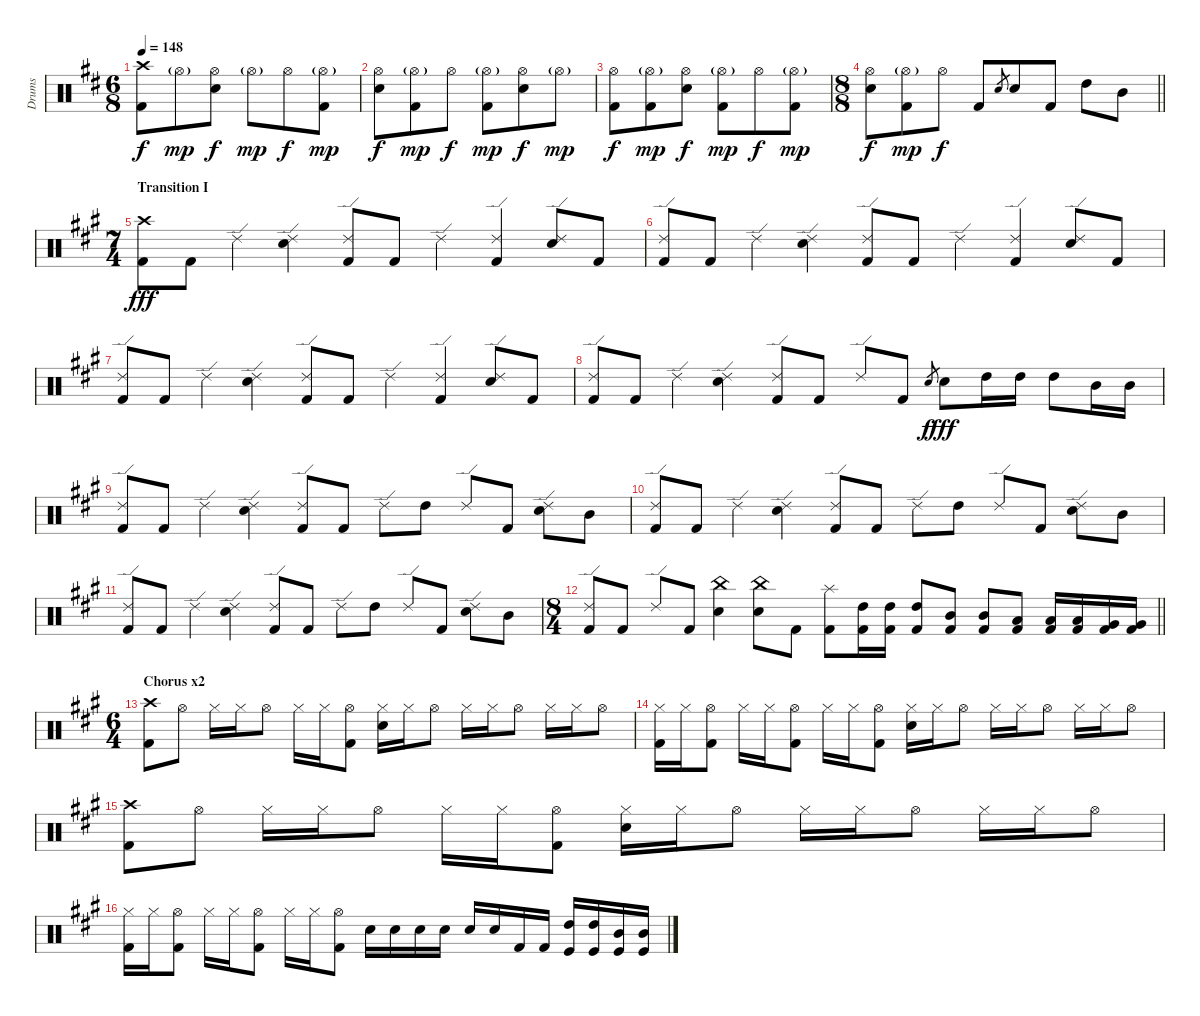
\track ("Drums" "Drums") {instrument percussion}
\staff {score}
\articulation defaults
\ts (6 8)
\tempo 148
\clef neutral
\ks d
("Crash high (hit)" "Kick (hit) 2").8{dy f} "Hi-Hat (open)"{g}.8{dy mp} ("Hi-Hat (open)" "Electric Snare (hit)").8{dy f} "Hi-Hat (open)"{g}.8{dy mp} "Hi-Hat (open)".8{dy f} ("Hi-Hat (open)"{g} "Kick (hit) 2").8{dy mp} |
("Hi-Hat (open)" "Electric Snare (hit)").8{dy f} ("Hi-Hat (open)"{g} "Kick (hit) 2").8{dy mp} "Hi-Hat (open)".8{dy f} ("Hi-Hat (open)"{g} "Kick (hit) 2").8{dy mp} ("Hi-Hat (open)" "Electric Snare (hit)").8{dy f} "Hi-Hat (open)"{g}.8{dy mp} |
("Hi-Hat (open)" "Kick (hit) 2").8{dy f} ("Hi-Hat (open)"{g} "Kick (hit) 2").8{dy mp} ("Hi-Hat (open)" "Electric Snare (hit)").8{dy f} ("Hi-Hat (open)"{g} "Kick (hit) 2").8{dy mp} "Hi-Hat (open)".8{dy f} ("Hi-Hat (open)"{g} "Kick (hit) 2").8{dy mp} |
\ts (8 8)
\barLineRight lightlight
("Hi-Hat (open)" "Electric Snare (hit)").8{dy f} ("Hi-Hat (open)"{g} "Kick (hit) 2").8{dy mp} "Hi-Hat (open)".8{dy f} "Kick (hit) 2".8 "Electric Snare (hit)".8{gr} "Electric Snare (hit)".8 "Kick (hit) 2".8 "High Tom (hit)".8 "Mid Tom (hit)".8 |
\ts (7 4)
\section ("" "Transition I")
\ks a
("Crash high (hit)" "Kick (hit) 2").8{dy fff} "Kick (hit) 2".8 "Ride (edge) 2".4 ("Ride (edge) 2" "Electric Snare (hit)").4 ("Ride (edge) 2" "Kick (hit) 2").8 "Kick (hit) 2".8 "Ride (edge) 2".4 ("Ride (edge) 2" "Kick (hit) 2").4 ("Ride (edge) 2" "Electric Snare (hit)").8 "Kick (hit) 2".8 |
("Ride (edge) 2" "Kick (hit) 2").8 "Kick (hit) 2".8 "Ride (edge) 2".4 ("Ride (edge) 2" "Electric Snare (hit)").4 ("Ride (edge) 2" "Kick (hit) 2").8 "Kick (hit) 2".8 "Ride (edge) 2".4 ("Ride (edge) 2" "Kick (hit) 2").4 ("Ride (edge) 2" "Electric Snare (hit)").8 "Kick (hit) 2".8 |
("Ride (edge) 2" "Kick (hit) 2").8 "Kick (hit) 2".8 "Ride (edge) 2".4 ("Ride (edge) 2" "Electric Snare (hit)").4 ("Ride (edge) 2" "Kick (hit) 2").8 "Kick (hit) 2".8 "Ride (edge) 2".4 ("Ride (edge) 2" "Kick (hit) 2").4 ("Ride (edge) 2" "Electric Snare (hit)").8 "Kick (hit) 2".8 |
("Ride (edge) 2" "Kick (hit) 2").8 "Kick (hit) 2".8 "Ride (edge) 2".4 ("Ride (edge) 2" "Electric Snare (hit)").4 ("Ride (edge) 2" "Kick (hit) 2").8 "Kick (hit) 2".8 "Ride (edge) 2".8 "Kick (hit) 2".8 "Electric Snare (hit)".8{gr dy f} "Electric Snare (hit)".8{dy fff} "High Tom (hit)".16 "High Tom (hit)".16 "High Tom (hit)".8 "Mid Tom (hit)".16 "Mid Tom (hit)".16 |
("Ride (edge) 2" "Kick (hit) 2").8 "Kick (hit) 2".8 "Ride (edge) 2".4 ("Ride (edge) 2" "Electric Snare (hit)").4 ("Ride (edge) 2" "Kick (hit) 2").8 "Kick (hit) 2".8 "Ride (edge) 2".8 "High Tom (hit)".8 "Ride (edge) 2".8 "Kick (hit) 2".8 ("Ride (edge) 2" "Electric Snare (hit)").8 "Mid Tom (hit)".8 |
("Ride (edge) 2" "Kick (hit) 2").8 "Kick (hit) 2".8 "Ride (edge) 2".4 ("Ride (edge) 2" "Electric Snare (hit)").4 ("Ride (edge) 2" "Kick (hit) 2").8 "Kick (hit) 2".8 "Ride (edge) 2".8 "High Tom (hit)".8 "Ride (edge) 2".8 "Kick (hit) 2".8 ("Ride (edge) 2" "Electric Snare (hit)").8 "Mid Tom (hit)".8 |
("Ride (edge) 2" "Kick (hit) 2").8 "Kick (hit) 2".8 "Ride (edge) 2".4 ("Ride (edge) 2" "Electric Snare (hit)").4 ("Ride (edge) 2" "Kick (hit) 2").8 "Kick (hit) 2".8 "Ride (edge) 2".8 "High Tom (hit)".8 "Ride (edge) 2".8 "Kick (hit) 2".8 ("Ride (edge) 2" "Electric Snare (hit)").8 "Mid Tom (hit)".8 |
\ts (8 4)
\barLineRight lightlight
("Ride (edge) 2" "Kick (hit) 2").8 "Kick (hit) 2".8 "Ride (edge) 2".8 "Kick (hit) 2".8 ("China (hit)" "Electric Snare (hit)").4 ("China (hit)" "Electric Snare (hit)").8 "Kick (hit) 2".8 ("Splash (hit)" "Kick (hit) 2").8 ("High Tom (hit)" "Kick (hit) 2").16 ("High Tom (hit)" "Kick (hit) 2").16 ("High Tom (hit)" "Kick (hit) 2").8 ("Mid Tom (hit)" "Kick (hit) 2").8 ("Mid Tom (hit)" "Kick (hit) 2").8 ("Low Tom (hit)" "Kick (hit) 2").8 ("Low Tom (hit)" "Kick (hit) 2").16 ("Low Tom (hit)" "Kick (hit) 2").16 ("Very Low Tom (hit)" "Kick (hit) 2").16 ("Very Low Tom (hit)" "Kick (hit) 2").16 |
\ts (6 4)
\section ("" "Chorus x2")
("Crash high (hit)" "Kick (hit) 2").8 "Hi-Hat (open)".8 "Hi-Hat (closed)".16 "Hi-Hat (closed)".16 "Hi-Hat (open)".8 "Hi-Hat (closed)".16 "Hi-Hat (closed)".16 ("Hi-Hat (open)" "Kick (hit) 2").8 ("Hi-Hat (closed)" "Electric Snare (hit)").16 "Hi-Hat (closed)".16 "Hi-Hat (open)".8 "Hi-Hat (closed)".16 "Hi-Hat (closed)".16 "Hi-Hat (open)".8 "Hi-Hat (closed)".16 "Hi-Hat (closed)".16 "Hi-Hat (open)".8 |
("Hi-Hat (closed)" "Kick (hit) 2").16 "Hi-Hat (closed)".16 ("Hi-Hat (open)" "Kick (hit) 2").8 "Hi-Hat (closed)".16 "Hi-Hat (closed)".16 ("Hi-Hat (open)" "Kick (hit) 2").8 "Hi-Hat (closed)".16 "Hi-Hat (closed)".16 ("Hi-Hat (open)" "Kick (hit) 2").8 ("Hi-Hat (closed)" "Electric Snare (hit)").16 "Hi-Hat (closed)".16 "Hi-Hat (open)".8 "Hi-Hat (closed)".16 "Hi-Hat (closed)".16 "Hi-Hat (open)".8 "Hi-Hat (closed)".16 "Hi-Hat (closed)".16 "Hi-Hat (open)".8 |
("Crash high (hit)" "Kick (hit) 2").8 "Hi-Hat (open)".8 "Hi-Hat (closed)".16 "Hi-Hat (closed)".16 "Hi-Hat (open)".8 "Hi-Hat (closed)".16 "Hi-Hat (closed)".16 ("Hi-Hat (open)" "Kick (hit) 2").8 ("Hi-Hat (closed)" "Electric Snare (hit)").16 "Hi-Hat (closed)".16 "Hi-Hat (open)".8 "Hi-Hat (closed)".16 "Hi-Hat (closed)".16 "Hi-Hat (open)".8 "Hi-Hat (closed)".16 "Hi-Hat (closed)".16 "Hi-Hat (open)".8 |
("Hi-Hat (closed)" "Kick (hit) 2").16 "Hi-Hat (closed)".16 ("Hi-Hat (open)" "Kick (hit) 2").8 "Hi-Hat (closed)".16 "Hi-Hat (closed)".16 ("Hi-Hat (open)" "Kick (hit) 2").8 "Hi-Hat (closed)".16 "Hi-Hat (closed)".16 ("Hi-Hat (open)" "Kick (hit) 2").8 "Electric Snare (hit)".16 "Electric Snare (hit)".16 "Electric Snare (hit)".16 "Electric Snare (hit)".16 "Electric Snare (hit)".16 "Electric Snare (hit)".16 "Kick (hit) 2".16 "Kick (hit) 2".16 ("High Tom (hit)" "Kick (hit)").16 ("High Tom (hit)" "Kick (hit)").16 ("Mid Tom (hit)" "Kick (hit)").16 ("Mid Tom (hit)" "Kick (hit)").16
